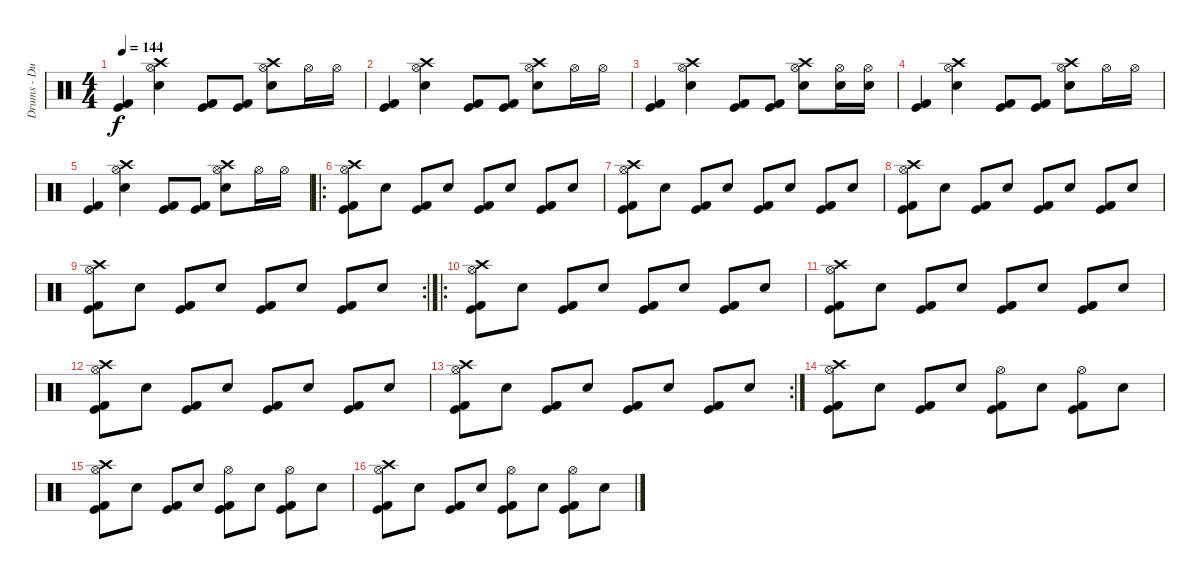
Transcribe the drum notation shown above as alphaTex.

\track ("Drums - Duncan Scott" "Drums - Du") {instrument percussion}
\staff {score}
\articulation defaults
\ts (4 4)
\tempo 144
\clef neutral
\ks c
("Kick (hit) 2" "Kick (hit)").4{dy f} ("Crash high (hit)" "Hi-Hat (open)" "Electric Snare (hit)").4 ("Kick (hit) 2" "Kick (hit)").8 ("Kick (hit) 2" "Kick (hit)").8 ("Crash high (hit)" "Hi-Hat (open)" "Electric Snare (hit)").8 "Hi-Hat (open)".16 "Hi-Hat (open)".16 |
("Kick (hit) 2" "Kick (hit)").4 ("Crash high (hit)" "Hi-Hat (open)" "Electric Snare (hit)").4 ("Kick (hit) 2" "Kick (hit)").8 ("Kick (hit) 2" "Kick (hit)").8 ("Crash high (hit)" "Hi-Hat (open)" "Electric Snare (hit)").8 "Hi-Hat (open)".16 "Hi-Hat (open)".16 |
("Kick (hit) 2" "Kick (hit)").4 ("Crash high (hit)" "Hi-Hat (open)" "Electric Snare (hit)").4 ("Kick (hit) 2" "Kick (hit)").8 ("Kick (hit) 2" "Kick (hit)").8 ("Crash high (hit)" "Hi-Hat (open)" "Electric Snare (hit)").8 ("Hi-Hat (open)" "Electric Snare (hit)").16 ("Hi-Hat (open)" "Electric Snare (hit)").16 |
("Kick (hit) 2" "Kick (hit)").4 ("Crash high (hit)" "Hi-Hat (open)" "Electric Snare (hit)").4 ("Kick (hit) 2" "Kick (hit)").8 ("Kick (hit) 2" "Kick (hit)").8 ("Crash high (hit)" "Hi-Hat (open)" "Electric Snare (hit)").8 "Hi-Hat (open)".16 "Hi-Hat (open)".16 |
("Kick (hit) 2" "Kick (hit)").4 ("Crash high (hit)" "Hi-Hat (open)" "Electric Snare (hit)").4 ("Kick (hit) 2" "Kick (hit)").8 ("Kick (hit) 2" "Kick (hit)").8 ("Crash high (hit)" "Hi-Hat (open)" "Electric Snare (hit)").8 "Hi-Hat (open)".16 "Hi-Hat (open)".16 |
\ro
("Crash high (hit)" "Hi-Hat (open)" "Kick (hit)" "Kick (hit) 2").8 "Electric Snare (hit)".8 ("Kick (hit)" "Kick (hit) 2").8 "Electric Snare (hit)".8 ("Kick (hit)" "Kick (hit) 2").8 "Electric Snare (hit)".8 ("Kick (hit)" "Kick (hit) 2").8 "Electric Snare (hit)".8 |
("Crash high (hit)" "Hi-Hat (open)" "Kick (hit)" "Kick (hit) 2").8 "Electric Snare (hit)".8 ("Kick (hit)" "Kick (hit) 2").8 "Electric Snare (hit)".8 ("Kick (hit)" "Kick (hit) 2").8 "Electric Snare (hit)".8 ("Kick (hit)" "Kick (hit) 2").8 "Electric Snare (hit)".8 |
("Crash high (hit)" "Hi-Hat (open)" "Kick (hit)" "Kick (hit) 2").8 "Electric Snare (hit)".8 ("Kick (hit)" "Kick (hit) 2").8 "Electric Snare (hit)".8 ("Kick (hit)" "Kick (hit) 2").8 "Electric Snare (hit)".8 ("Kick (hit)" "Kick (hit) 2").8 "Electric Snare (hit)".8 |
\rc 2
("Crash high (hit)" "Hi-Hat (open)" "Kick (hit)" "Kick (hit) 2").8 "Electric Snare (hit)".8 ("Kick (hit)" "Kick (hit) 2").8 "Electric Snare (hit)".8 ("Kick (hit)" "Kick (hit) 2").8 "Electric Snare (hit)".8 ("Kick (hit)" "Kick (hit) 2").8 "Electric Snare (hit)".8 |
\ro
("Crash high (hit)" "Hi-Hat (open)" "Kick (hit)" "Kick (hit) 2").8 "Electric Snare (hit)".8 ("Kick (hit)" "Kick (hit) 2").8 "Electric Snare (hit)".8 ("Kick (hit)" "Kick (hit) 2").8 "Electric Snare (hit)".8 ("Kick (hit)" "Kick (hit) 2").8 "Electric Snare (hit)".8 |
("Crash high (hit)" "Hi-Hat (open)" "Kick (hit)" "Kick (hit) 2").8 "Electric Snare (hit)".8 ("Kick (hit)" "Kick (hit) 2").8 "Electric Snare (hit)".8 ("Kick (hit)" "Kick (hit) 2").8 "Electric Snare (hit)".8 ("Kick (hit)" "Kick (hit) 2").8 "Electric Snare (hit)".8 |
("Crash high (hit)" "Hi-Hat (open)" "Kick (hit)" "Kick (hit) 2").8 "Electric Snare (hit)".8 ("Kick (hit)" "Kick (hit) 2").8 "Electric Snare (hit)".8 ("Kick (hit)" "Kick (hit) 2").8 "Electric Snare (hit)".8 ("Kick (hit)" "Kick (hit) 2").8 "Electric Snare (hit)".8 |
\rc 2
("Crash high (hit)" "Hi-Hat (open)" "Kick (hit)" "Kick (hit) 2").8 "Electric Snare (hit)".8 ("Kick (hit)" "Kick (hit) 2").8 "Electric Snare (hit)".8 ("Kick (hit)" "Kick (hit) 2").8 "Electric Snare (hit)".8 ("Kick (hit)" "Kick (hit) 2").8 "Electric Snare (hit)".8 |
("Crash high (hit)" "Hi-Hat (open)" "Kick (hit)" "Kick (hit) 2").8 "Electric Snare (hit)".8 ("Kick (hit)" "Kick (hit) 2").8 "Electric Snare (hit)".8 ("Hi-Hat (open)" "Kick (hit)" "Kick (hit) 2").8 "Electric Snare (hit)".8 ("Hi-Hat (open)" "Kick (hit)" "Kick (hit) 2").8 "Electric Snare (hit)".8 |
("Crash high (hit)" "Hi-Hat (open)" "Kick (hit)" "Kick (hit) 2").8 "Electric Snare (hit)".8 ("Kick (hit)" "Kick (hit) 2").8 "Electric Snare (hit)".8 ("Hi-Hat (open)" "Kick (hit)" "Kick (hit) 2").8 "Electric Snare (hit)".8 ("Hi-Hat (open)" "Kick (hit)" "Kick (hit) 2").8 "Electric Snare (hit)".8 |
("Crash high (hit)" "Hi-Hat (open)" "Kick (hit)" "Kick (hit) 2").8 "Electric Snare (hit)".8 ("Kick (hit)" "Kick (hit) 2").8 "Electric Snare (hit)".8 ("Hi-Hat (open)" "Kick (hit)" "Kick (hit) 2").8 "Electric Snare (hit)".8 ("Hi-Hat (open)" "Kick (hit)" "Kick (hit) 2").8 "Electric Snare (hit)".8
